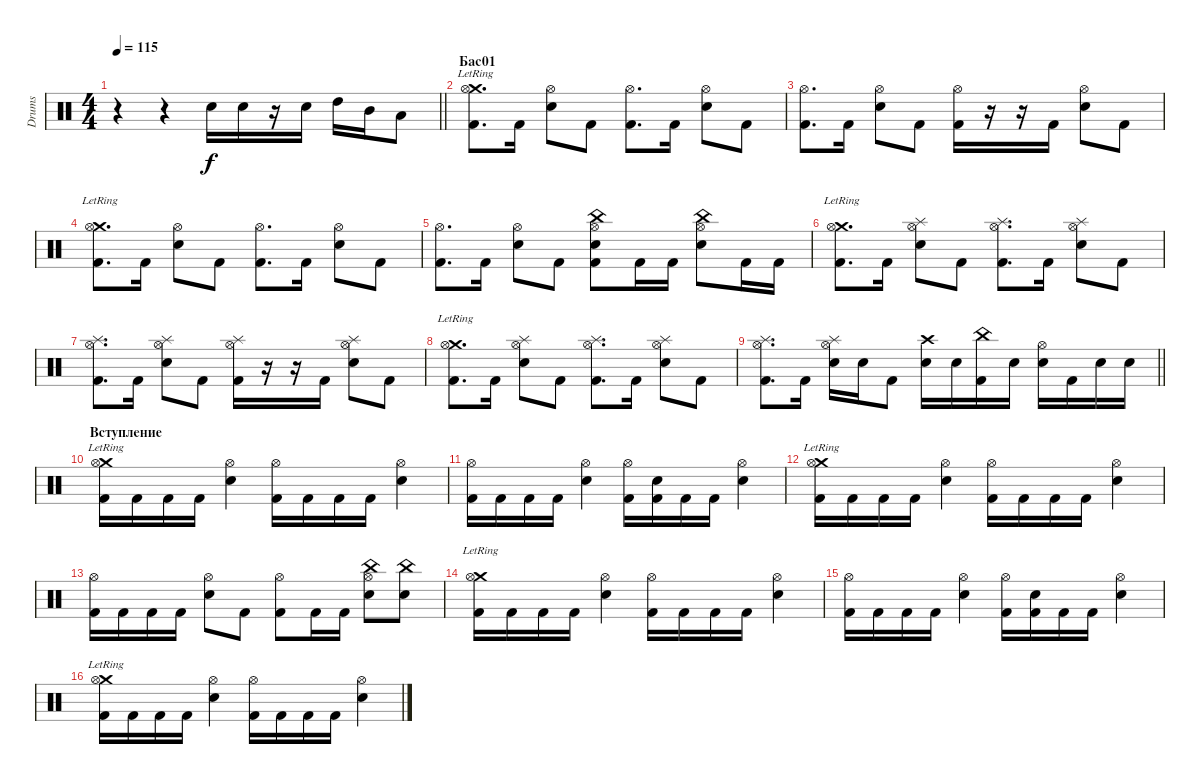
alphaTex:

\track ("Drums" "Drums") {instrument percussion}
\staff {score}
\articulation defaults
\ts (4 4)
\tempo 115
\clef neutral
\barLineRight lightlight
\ks c
r.4{dy f} r.4 "Electric Snare (hit)".16 "Electric Snare (hit)".16 r.16 "Electric Snare (hit)".16 "High Tom (hit)".16 "Mid Tom (hit)".16 "Low Tom (hit)".8 |
\section ("" "Бас01")
("Crash medium (hit)"{lr} "Kick (hit) 2" "Hi-Hat (open)").8{d} "Kick (hit) 2".16 ("Electric Snare (hit)" "Hi-Hat (open)").8 "Kick (hit) 2".8 ("Kick (hit) 2" "Hi-Hat (open)").8{d} "Kick (hit) 2".16 ("Electric Snare (hit)" "Hi-Hat (open)").8 "Kick (hit) 2".8 |
("Kick (hit) 2" "Hi-Hat (open)").8{d} "Kick (hit) 2".16 ("Electric Snare (hit)" "Hi-Hat (open)").8 "Kick (hit) 2".8 ("Kick (hit) 2" "Hi-Hat (open)").16 r.16 r.16 "Kick (hit) 2".16 ("Electric Snare (hit)" "Hi-Hat (open)").8 "Kick (hit) 2".8 |
("Crash medium (hit)"{lr} "Kick (hit) 2" "Hi-Hat (open)").8{d} "Kick (hit) 2".16 ("Electric Snare (hit)" "Hi-Hat (open)").8 "Kick (hit) 2".8 ("Kick (hit) 2" "Hi-Hat (open)").8{d} "Kick (hit) 2".16 ("Electric Snare (hit)" "Hi-Hat (open)").8 "Kick (hit) 2".8 |
("Kick (hit) 2" "Hi-Hat (open)").8{d} "Kick (hit) 2".16 ("Electric Snare (hit)" "Hi-Hat (open)").8 "Kick (hit) 2".8 ("China (hit)" "Electric Snare (hit)" "Kick (hit) 2" "Hi-Hat (open)").8 "Kick (hit) 2".16 "Kick (hit) 2".16 ("China (hit)" "Electric Snare (hit)" "Hi-Hat (open)").8 "Kick (hit) 2".16 "Kick (hit) 2".16 |
("Crash medium (hit)"{lr} "Kick (hit) 2" "Hi-Hat (open)").8{d} "Kick (hit) 2".16 ("Splash (hit)" "Electric Snare (hit)" "Hi-Hat (open)").8 "Kick (hit) 2".8 ("Splash (hit)" "Kick (hit) 2" "Hi-Hat (open)").8{d} "Kick (hit) 2".16 ("Splash (hit)" "Electric Snare (hit)" "Hi-Hat (open)").8 "Kick (hit) 2".8 |
("Splash (hit)" "Kick (hit) 2" "Hi-Hat (open)").8{d} "Kick (hit) 2".16 ("Splash (hit)" "Electric Snare (hit)" "Hi-Hat (open)").8 "Kick (hit) 2".8 ("Splash (hit)" "Kick (hit) 2" "Hi-Hat (open)").16 r.16 r.16 "Kick (hit) 2".16 ("Splash (hit)" "Electric Snare (hit)" "Hi-Hat (open)").8 "Kick (hit) 2".8 |
("Crash medium (hit)"{lr} "Kick (hit) 2" "Hi-Hat (open)").8{d} "Kick (hit) 2".16 ("Splash (hit)" "Electric Snare (hit)" "Hi-Hat (open)").8 "Kick (hit) 2".8 ("Splash (hit)" "Kick (hit) 2" "Hi-Hat (open)").8{d} "Kick (hit) 2".16 ("Splash (hit)" "Electric Snare (hit)" "Hi-Hat (open)").8 "Kick (hit) 2".8 |
\barLineRight lightlight
("Splash (hit)" "Kick (hit) 2" "Hi-Hat (open)").8{d} "Kick (hit) 2".16 ("Splash (hit)" "Electric Snare (hit)" "Hi-Hat (open)").16 "Electric Snare (hit)".16 "Kick (hit) 2".8 ("Crash high (hit)" "Electric Snare (hit)").16 "Electric Snare (hit)".16 ("China (hit)" "Kick (hit) 2").16 "Electric Snare (hit)".16 ("Electric Snare (hit)" "Hi-Hat (open)").16 "Kick (hit) 2".16 "Electric Snare (hit)".16 "Electric Snare (hit)".16 |
\section ("" "Вступление")
("Crash medium (hit)"{lr} "Kick (hit) 2" "Hi-Hat (open)").16 "Kick (hit) 2".16 "Kick (hit) 2".16 "Kick (hit) 2".16 ("Electric Snare (hit)" "Hi-Hat (open)").4 ("Kick (hit) 2" "Hi-Hat (open)").16 "Kick (hit) 2".16 "Kick (hit) 2".16 "Kick (hit) 2".16 ("Electric Snare (hit)" "Hi-Hat (open)").4 |
("Kick (hit) 2" "Hi-Hat (open)").16 "Kick (hit) 2".16 "Kick (hit) 2".16 "Kick (hit) 2".16 ("Electric Snare (hit)" "Hi-Hat (open)").4 ("Kick (hit) 2" "Hi-Hat (open)").16 ("Electric Snare (hit)" "Kick (hit) 2").16 "Kick (hit) 2".16 "Kick (hit) 2".16 ("Electric Snare (hit)" "Hi-Hat (open)").4 |
("Crash medium (hit)"{lr} "Kick (hit) 2" "Hi-Hat (open)").16 "Kick (hit) 2".16 "Kick (hit) 2".16 "Kick (hit) 2".16 ("Electric Snare (hit)" "Hi-Hat (open)").4 ("Kick (hit) 2" "Hi-Hat (open)").16 "Kick (hit) 2".16 "Kick (hit) 2".16 "Kick (hit) 2".16 ("Electric Snare (hit)" "Hi-Hat (open)").4 |
("Kick (hit) 2" "Hi-Hat (open)").16 "Kick (hit) 2".16 "Kick (hit) 2".16 "Kick (hit) 2".16 ("Electric Snare (hit)" "Hi-Hat (open)").8 "Kick (hit) 2".8 ("Kick (hit) 2" "Hi-Hat (open)").8 "Kick (hit) 2".16 "Kick (hit) 2".16 ("China (hit)" "Electric Snare (hit)" "Hi-Hat (open)").8 ("China (hit)" "Electric Snare (hit)").8 |
("Crash medium (hit)"{lr} "Kick (hit) 2" "Hi-Hat (open)").16 "Kick (hit) 2".16 "Kick (hit) 2".16 "Kick (hit) 2".16 ("Electric Snare (hit)" "Hi-Hat (open)").4 ("Kick (hit) 2" "Hi-Hat (open)").16 "Kick (hit) 2".16 "Kick (hit) 2".16 "Kick (hit) 2".16 ("Electric Snare (hit)" "Hi-Hat (open)").4 |
("Kick (hit) 2" "Hi-Hat (open)").16 "Kick (hit) 2".16 "Kick (hit) 2".16 "Kick (hit) 2".16 ("Electric Snare (hit)" "Hi-Hat (open)").4 ("Kick (hit) 2" "Hi-Hat (open)").16 ("Electric Snare (hit)" "Kick (hit) 2").16 "Kick (hit) 2".16 "Kick (hit) 2".16 ("Electric Snare (hit)" "Hi-Hat (open)").4 |
("Crash medium (hit)"{lr} "Kick (hit) 2" "Hi-Hat (open)").16 "Kick (hit) 2".16 "Kick (hit) 2".16 "Kick (hit) 2".16 ("Electric Snare (hit)" "Hi-Hat (open)").4 ("Kick (hit) 2" "Hi-Hat (open)").16 "Kick (hit) 2".16 "Kick (hit) 2".16 "Kick (hit) 2".16 ("Electric Snare (hit)" "Hi-Hat (open)").4
